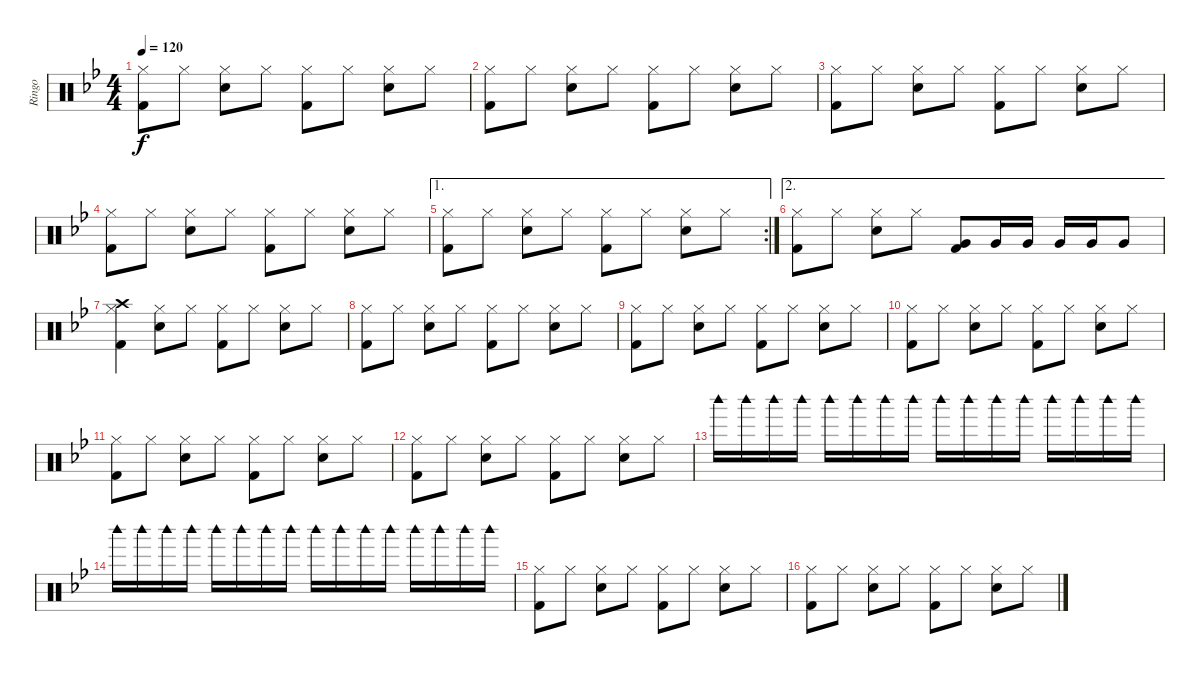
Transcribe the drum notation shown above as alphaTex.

\track ("Ringo" "Ringo") {instrument percussion}
\staff {score}
\articulation defaults
\ts (4 4)
\tempo 120
\clef neutral
\ks bb
("Hi-Hat (closed)" "Kick (hit) 2").8{dy f} "Hi-Hat (closed)".8 ("Hi-Hat (closed)" "Snare (hit) 2").8 "Hi-Hat (closed)".8 ("Hi-Hat (closed)" "Kick (hit) 2").8 "Hi-Hat (closed)".8 ("Hi-Hat (closed)" "Snare (hit) 2").8 "Hi-Hat (closed)".8 |
("Hi-Hat (closed)" "Kick (hit) 2").8 "Hi-Hat (closed)".8 ("Hi-Hat (closed)" "Snare (hit) 2").8 "Hi-Hat (closed)".8 ("Hi-Hat (closed)" "Kick (hit) 2").8 "Hi-Hat (closed)".8 ("Hi-Hat (closed)" "Snare (hit) 2").8 "Hi-Hat (closed)".8 |
("Hi-Hat (closed)" "Kick (hit) 2").8 "Hi-Hat (closed)".8 ("Hi-Hat (closed)" "Snare (hit) 2").8 "Hi-Hat (closed)".8 ("Hi-Hat (closed)" "Kick (hit) 2").8 "Hi-Hat (closed)".8 ("Hi-Hat (closed)" "Snare (hit) 2").8 "Hi-Hat (closed)".8 |
("Hi-Hat (closed)" "Kick (hit) 2").8 "Hi-Hat (closed)".8 ("Hi-Hat (closed)" "Snare (hit) 2").8 "Hi-Hat (closed)".8 ("Hi-Hat (closed)" "Kick (hit) 2").8 "Hi-Hat (closed)".8 ("Hi-Hat (closed)" "Snare (hit) 2").8 "Hi-Hat (closed)".8 |
\ae 1
\rc 2
("Hi-Hat (closed)" "Kick (hit) 2").8 "Hi-Hat (closed)".8 ("Hi-Hat (closed)" "Snare (hit) 2").8 "Hi-Hat (closed)".8 ("Hi-Hat (closed)" "Kick (hit) 2").8 "Hi-Hat (closed)".8 ("Hi-Hat (closed)" "Snare (hit) 2").8 "Hi-Hat (closed)".8 |
\ae 2
("Hi-Hat (closed)" "Kick (hit) 2").8 "Hi-Hat (closed)".8 ("Hi-Hat (closed)" "Snare (hit) 2").8 "Hi-Hat (closed)".8 ("Very Low Tom (hit)" "Kick (hit) 2").8 "Very Low Tom (hit)".16 "Very Low Tom (hit)".16 "Very Low Tom (hit)".16 "Very Low Tom (hit)".16 "Very Low Tom (hit)".8 |
("Hi-Hat (closed)" "Crash high (hit)" "Kick (hit) 2").4 ("Hi-Hat (closed)" "Snare (hit) 2").8 "Hi-Hat (closed)".8 ("Hi-Hat (closed)" "Kick (hit) 2").8 "Hi-Hat (closed)".8 ("Hi-Hat (closed)" "Snare (hit) 2").8 "Hi-Hat (closed)".8 |
("Hi-Hat (closed)" "Kick (hit) 2").8 "Hi-Hat (closed)".8 ("Hi-Hat (closed)" "Snare (hit) 2").8 "Hi-Hat (closed)".8 ("Hi-Hat (closed)" "Kick (hit) 2").8 "Hi-Hat (closed)".8 ("Hi-Hat (closed)" "Snare (hit) 2").8 "Hi-Hat (closed)".8 |
("Hi-Hat (closed)" "Kick (hit) 2").8 "Hi-Hat (closed)".8 ("Hi-Hat (closed)" "Snare (hit) 2").8 "Hi-Hat (closed)".8 ("Hi-Hat (closed)" "Kick (hit) 2").8 "Hi-Hat (closed)".8 ("Hi-Hat (closed)" "Snare (hit) 2").8 "Hi-Hat (closed)".8 |
("Hi-Hat (closed)" "Kick (hit) 2").8 "Hi-Hat (closed)".8 ("Hi-Hat (closed)" "Snare (hit) 2").8 "Hi-Hat (closed)".8 ("Hi-Hat (closed)" "Kick (hit) 2").8 "Hi-Hat (closed)".8 ("Hi-Hat (closed)" "Snare (hit) 2").8 "Hi-Hat (closed)".8 |
("Hi-Hat (closed)" "Kick (hit) 2").8 "Hi-Hat (closed)".8 ("Hi-Hat (closed)" "Snare (hit) 2").8 "Hi-Hat (closed)".8 ("Hi-Hat (closed)" "Kick (hit) 2").8 "Hi-Hat (closed)".8 ("Hi-Hat (closed)" "Snare (hit) 2").8 "Hi-Hat (closed)".8 |
("Hi-Hat (closed)" "Kick (hit) 2").8 "Hi-Hat (closed)".8 ("Hi-Hat (closed)" "Snare (hit) 2").8 "Hi-Hat (closed)".8 ("Hi-Hat (closed)" "Kick (hit) 2").8 "Hi-Hat (closed)".8 ("Hi-Hat (closed)" "Snare (hit) 2").8 "Hi-Hat (closed)".8 |
"Woodblock high (hit)".16 "Woodblock high (hit)".16 "Woodblock high (hit)".16 "Woodblock high (hit)".16 "Woodblock high (hit)".16 "Woodblock high (hit)".16 "Woodblock high (hit)".16 "Woodblock high (hit)".16 "Woodblock high (hit)".16 "Woodblock high (hit)".16 "Woodblock high (hit)".16 "Woodblock high (hit)".16 "Woodblock high (hit)".16 "Woodblock high (hit)".16 "Woodblock high (hit)".16 "Woodblock high (hit)".16 |
"Woodblock high (hit)".16 "Woodblock high (hit)".16 "Woodblock high (hit)".16 "Woodblock high (hit)".16 "Woodblock high (hit)".16 "Woodblock high (hit)".16 "Woodblock high (hit)".16 "Woodblock high (hit)".16 "Woodblock high (hit)".16 "Woodblock high (hit)".16 "Woodblock high (hit)".16 "Woodblock high (hit)".16 "Woodblock high (hit)".16 "Woodblock high (hit)".16 "Woodblock high (hit)".16 "Woodblock high (hit)".16 |
("Hi-Hat (closed)" "Kick (hit) 2").8 "Hi-Hat (closed)".8 ("Hi-Hat (closed)" "Snare (hit) 2").8 "Hi-Hat (closed)".8 ("Hi-Hat (closed)" "Kick (hit) 2").8 "Hi-Hat (closed)".8 ("Hi-Hat (closed)" "Snare (hit) 2").8 "Hi-Hat (closed)".8 |
("Hi-Hat (closed)" "Kick (hit) 2").8 "Hi-Hat (closed)".8 ("Hi-Hat (closed)" "Snare (hit) 2").8 "Hi-Hat (closed)".8 ("Hi-Hat (closed)" "Kick (hit) 2").8 "Hi-Hat (closed)".8 ("Hi-Hat (closed)" "Snare (hit) 2").8 "Hi-Hat (closed)".8
